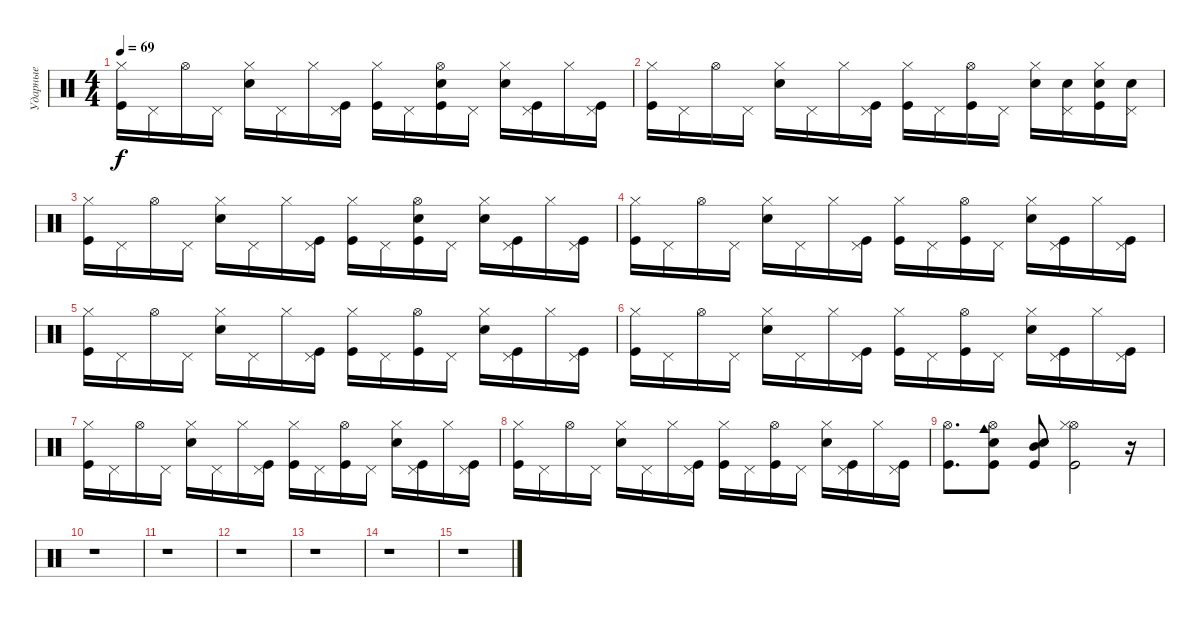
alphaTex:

\track ("Ударные" "Ударные") {instrument percussion}
\staff {score}
\articulation defaults
\ts (4 4)
\tempo 69
\clef neutral
\ks c
("Kick (hit)" "Hi-Hat (closed)").16{dy f} "Pedal Hi-Hat (hit)".16 "Hi-Hat (open)".16 "Pedal Hi-Hat (hit)".16 ("Snare (hit) 2" "Hi-Hat (closed)").16 "Pedal Hi-Hat (hit)".16 "Hi-Hat (closed)".16 ("Pedal Hi-Hat (hit)" "Kick (hit)").16 ("Kick (hit)" "Hi-Hat (closed)").16 "Pedal Hi-Hat (hit)".16 ("Kick (hit)" "Hi-Hat (open)" "Snare (hit) 2").16 "Pedal Hi-Hat (hit)".16 ("Snare (hit) 2" "Hi-Hat (closed)").16 ("Pedal Hi-Hat (hit)" "Kick (hit)").16 "Hi-Hat (closed)".16 ("Pedal Hi-Hat (hit)" "Kick (hit)").16 |
("Kick (hit)" "Hi-Hat (closed)").16 "Pedal Hi-Hat (hit)".16 "Hi-Hat (open)".16 "Pedal Hi-Hat (hit)".16 ("Snare (hit) 2" "Hi-Hat (closed)").16 "Pedal Hi-Hat (hit)".16 "Hi-Hat (closed)".16 ("Pedal Hi-Hat (hit)" "Kick (hit)").16 ("Kick (hit)" "Hi-Hat (closed)").16 "Pedal Hi-Hat (hit)".16 ("Kick (hit)" "Hi-Hat (open)").16 "Pedal Hi-Hat (hit)".16 ("Snare (hit) 2" "Hi-Hat (closed)").16 ("Pedal Hi-Hat (hit)" "Snare (hit) 2").16 ("Hi-Hat (closed)" "Snare (hit) 2" "Kick (hit)").16 ("Pedal Hi-Hat (hit)" "Snare (hit) 2").16 |
("Kick (hit)" "Hi-Hat (closed)").16 "Pedal Hi-Hat (hit)".16 "Hi-Hat (open)".16 "Pedal Hi-Hat (hit)".16 ("Snare (hit) 2" "Hi-Hat (closed)").16 "Pedal Hi-Hat (hit)".16 "Hi-Hat (closed)".16 ("Pedal Hi-Hat (hit)" "Kick (hit)").16 ("Kick (hit)" "Hi-Hat (closed)").16 "Pedal Hi-Hat (hit)".16 ("Kick (hit)" "Hi-Hat (open)" "Snare (hit) 2").16 "Pedal Hi-Hat (hit)".16 ("Snare (hit) 2" "Hi-Hat (closed)").16 ("Pedal Hi-Hat (hit)" "Kick (hit)").16 "Hi-Hat (closed)".16 ("Pedal Hi-Hat (hit)" "Kick (hit)").16 |
("Kick (hit)" "Hi-Hat (closed)").16 "Pedal Hi-Hat (hit)".16 "Hi-Hat (open)".16 "Pedal Hi-Hat (hit)".16 ("Snare (hit) 2" "Hi-Hat (closed)").16 "Pedal Hi-Hat (hit)".16 "Hi-Hat (closed)".16 ("Pedal Hi-Hat (hit)" "Kick (hit)").16 ("Kick (hit)" "Hi-Hat (closed)").16 "Pedal Hi-Hat (hit)".16 ("Kick (hit)" "Hi-Hat (open)").16 "Pedal Hi-Hat (hit)".16 ("Snare (hit) 2" "Hi-Hat (closed)").16 ("Pedal Hi-Hat (hit)" "Kick (hit)").16 "Hi-Hat (closed)".16 ("Pedal Hi-Hat (hit)" "Kick (hit)").16 |
("Kick (hit)" "Hi-Hat (closed)").16 "Pedal Hi-Hat (hit)".16 "Hi-Hat (open)".16 "Pedal Hi-Hat (hit)".16 ("Snare (hit) 2" "Hi-Hat (closed)").16 "Pedal Hi-Hat (hit)".16 "Hi-Hat (closed)".16 ("Pedal Hi-Hat (hit)" "Kick (hit)").16 ("Kick (hit)" "Hi-Hat (closed)").16 "Pedal Hi-Hat (hit)".16 ("Kick (hit)" "Hi-Hat (open)").16 "Pedal Hi-Hat (hit)".16 ("Snare (hit) 2" "Hi-Hat (closed)").16 ("Pedal Hi-Hat (hit)" "Kick (hit)").16 "Hi-Hat (closed)".16 ("Pedal Hi-Hat (hit)" "Kick (hit)").16 |
("Kick (hit)" "Hi-Hat (closed)").16 "Pedal Hi-Hat (hit)".16 "Hi-Hat (open)".16 "Pedal Hi-Hat (hit)".16 ("Snare (hit) 2" "Hi-Hat (closed)").16 "Pedal Hi-Hat (hit)".16 "Hi-Hat (closed)".16 ("Pedal Hi-Hat (hit)" "Kick (hit)").16 ("Kick (hit)" "Hi-Hat (closed)").16 "Pedal Hi-Hat (hit)".16 ("Kick (hit)" "Hi-Hat (open)").16 "Pedal Hi-Hat (hit)".16 ("Snare (hit) 2" "Hi-Hat (closed)").16 ("Pedal Hi-Hat (hit)" "Kick (hit)").16 "Hi-Hat (closed)".16 ("Pedal Hi-Hat (hit)" "Kick (hit)").16 |
("Kick (hit)" "Hi-Hat (closed)").16 "Pedal Hi-Hat (hit)".16 "Hi-Hat (open)".16 "Pedal Hi-Hat (hit)".16 ("Snare (hit) 2" "Hi-Hat (closed)").16 "Pedal Hi-Hat (hit)".16 "Hi-Hat (closed)".16 ("Pedal Hi-Hat (hit)" "Kick (hit)").16 ("Kick (hit)" "Hi-Hat (closed)").16 "Pedal Hi-Hat (hit)".16 ("Kick (hit)" "Hi-Hat (open)").16 "Pedal Hi-Hat (hit)".16 ("Snare (hit) 2" "Hi-Hat (closed)").16 ("Pedal Hi-Hat (hit)" "Kick (hit)").16 "Hi-Hat (closed)".16 ("Pedal Hi-Hat (hit)" "Kick (hit)").16 |
("Kick (hit)" "Hi-Hat (closed)").16 "Pedal Hi-Hat (hit)".16 "Hi-Hat (open)".16 "Pedal Hi-Hat (hit)".16 ("Snare (hit) 2" "Hi-Hat (closed)").16 "Pedal Hi-Hat (hit)".16 "Hi-Hat (closed)".16 ("Pedal Hi-Hat (hit)" "Kick (hit)").16 ("Kick (hit)" "Hi-Hat (closed)").16 "Pedal Hi-Hat (hit)".16 ("Kick (hit)" "Hi-Hat (open)").16 "Pedal Hi-Hat (hit)".16 ("Snare (hit) 2" "Hi-Hat (closed)").16 ("Pedal Hi-Hat (hit)" "Kick (hit)").16 "Hi-Hat (closed)".16 ("Pedal Hi-Hat (hit)" "Kick (hit)").16 |
("Kick (hit)" "Hi-Hat (open)").8{d} ("Kick (hit)" "Snare (hit) 2" "Hi-Hat (open)" "Cowbell medium (hit)").8 ("Kick (hit)" "Mid Tom (hit)" "Snare (hit) 2").8 ("Kick (hit)" "Hi-Hat (open)" "Hi-Hat (closed)").2 r.16 |
r.1 |
r.1 |
r.1 |
r.1 |
r.1 |
r.1
